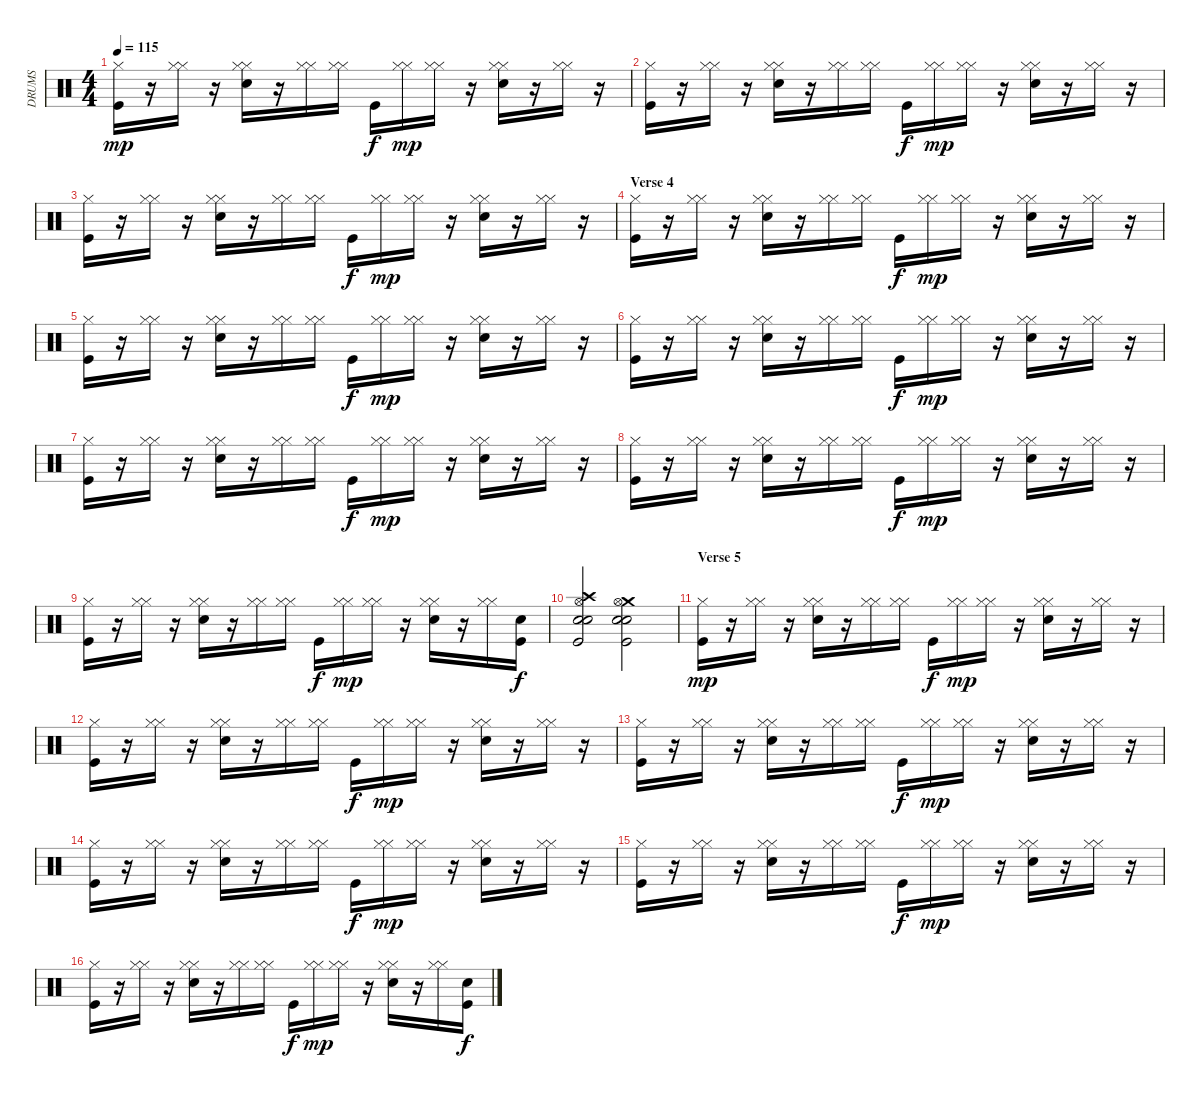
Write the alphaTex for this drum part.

\track ("DRUMS" "DRUMS") {instrument percussion}
\staff {score}
\articulation defaults
\ts (4 4)
\tempo 115
\clef neutral
\ks c
("Kick (hit)" "Hi-Hat (closed)").16{dy mp} r.16 ("Hi-Hat (closed)" "Hi-Hat (closed)").16 r.16 ("Hi-Hat (closed)" "Snare (hit) 2" "Hi-Hat (closed)").16 r.16 ("Hi-Hat (closed)" "Hi-Hat (closed)").16 ("Hi-Hat (closed)" "Hi-Hat (closed)").16 "Kick (hit)".16{dy f} ("Hi-Hat (closed)" "Hi-Hat (closed)").16{dy mp} ("Hi-Hat (closed)" "Hi-Hat (closed)").16 r.16 ("Hi-Hat (closed)" "Snare (hit) 2" "Hi-Hat (closed)").16 r.16 ("Hi-Hat (closed)" "Hi-Hat (closed)").16 r.16 |
("Kick (hit)" "Hi-Hat (closed)").16 r.16 ("Hi-Hat (closed)" "Hi-Hat (closed)").16 r.16 ("Hi-Hat (closed)" "Snare (hit) 2" "Hi-Hat (closed)").16 r.16 ("Hi-Hat (closed)" "Hi-Hat (closed)").16 ("Hi-Hat (closed)" "Hi-Hat (closed)").16 "Kick (hit)".16{dy f} ("Hi-Hat (closed)" "Hi-Hat (closed)").16{dy mp} ("Hi-Hat (closed)" "Hi-Hat (closed)").16 r.16 ("Hi-Hat (closed)" "Snare (hit) 2" "Hi-Hat (closed)").16 r.16 ("Hi-Hat (closed)" "Hi-Hat (closed)").16 r.16 |
("Kick (hit)" "Hi-Hat (closed)").16 r.16 ("Hi-Hat (closed)" "Hi-Hat (closed)").16 r.16 ("Hi-Hat (closed)" "Snare (hit) 2" "Hi-Hat (closed)").16 r.16 ("Hi-Hat (closed)" "Hi-Hat (closed)").16 ("Hi-Hat (closed)" "Hi-Hat (closed)").16 "Kick (hit)".16{dy f} ("Hi-Hat (closed)" "Hi-Hat (closed)").16{dy mp} ("Hi-Hat (closed)" "Hi-Hat (closed)").16 r.16 ("Hi-Hat (closed)" "Snare (hit) 2" "Hi-Hat (closed)").16 r.16 ("Hi-Hat (closed)" "Hi-Hat (closed)").16 r.16 |
\section ("" "Verse 4")
("Kick (hit)" "Hi-Hat (closed)").16 r.16 ("Hi-Hat (closed)" "Hi-Hat (closed)").16 r.16 ("Hi-Hat (closed)" "Snare (hit) 2" "Hi-Hat (closed)").16 r.16 ("Hi-Hat (closed)" "Hi-Hat (closed)").16 ("Hi-Hat (closed)" "Hi-Hat (closed)").16 "Kick (hit)".16{dy f} ("Hi-Hat (closed)" "Hi-Hat (closed)").16{dy mp} ("Hi-Hat (closed)" "Hi-Hat (closed)").16 r.16 ("Hi-Hat (closed)" "Snare (hit) 2" "Hi-Hat (closed)").16 r.16 ("Hi-Hat (closed)" "Hi-Hat (closed)").16 r.16 |
("Kick (hit)" "Hi-Hat (closed)").16 r.16 ("Hi-Hat (closed)" "Hi-Hat (closed)").16 r.16 ("Hi-Hat (closed)" "Snare (hit) 2" "Hi-Hat (closed)").16 r.16 ("Hi-Hat (closed)" "Hi-Hat (closed)").16 ("Hi-Hat (closed)" "Hi-Hat (closed)").16 "Kick (hit)".16{dy f} ("Hi-Hat (closed)" "Hi-Hat (closed)").16{dy mp} ("Hi-Hat (closed)" "Hi-Hat (closed)").16 r.16 ("Hi-Hat (closed)" "Snare (hit) 2" "Hi-Hat (closed)").16 r.16 ("Hi-Hat (closed)" "Hi-Hat (closed)").16 r.16 |
("Kick (hit)" "Hi-Hat (closed)").16 r.16 ("Hi-Hat (closed)" "Hi-Hat (closed)").16 r.16 ("Hi-Hat (closed)" "Snare (hit) 2" "Hi-Hat (closed)").16 r.16 ("Hi-Hat (closed)" "Hi-Hat (closed)").16 ("Hi-Hat (closed)" "Hi-Hat (closed)").16 "Kick (hit)".16{dy f} ("Hi-Hat (closed)" "Hi-Hat (closed)").16{dy mp} ("Hi-Hat (closed)" "Hi-Hat (closed)").16 r.16 ("Hi-Hat (closed)" "Snare (hit) 2" "Hi-Hat (closed)").16 r.16 ("Hi-Hat (closed)" "Hi-Hat (closed)").16 r.16 |
("Kick (hit)" "Hi-Hat (closed)").16 r.16 ("Hi-Hat (closed)" "Hi-Hat (closed)").16 r.16 ("Hi-Hat (closed)" "Snare (hit) 2" "Hi-Hat (closed)").16 r.16 ("Hi-Hat (closed)" "Hi-Hat (closed)").16 ("Hi-Hat (closed)" "Hi-Hat (closed)").16 "Kick (hit)".16{dy f} ("Hi-Hat (closed)" "Hi-Hat (closed)").16{dy mp} ("Hi-Hat (closed)" "Hi-Hat (closed)").16 r.16 ("Hi-Hat (closed)" "Snare (hit) 2" "Hi-Hat (closed)").16 r.16 ("Hi-Hat (closed)" "Hi-Hat (closed)").16 r.16 |
("Kick (hit)" "Hi-Hat (closed)").16 r.16 ("Hi-Hat (closed)" "Hi-Hat (closed)").16 r.16 ("Hi-Hat (closed)" "Snare (hit) 2" "Hi-Hat (closed)").16 r.16 ("Hi-Hat (closed)" "Hi-Hat (closed)").16 ("Hi-Hat (closed)" "Hi-Hat (closed)").16 "Kick (hit)".16{dy f} ("Hi-Hat (closed)" "Hi-Hat (closed)").16{dy mp} ("Hi-Hat (closed)" "Hi-Hat (closed)").16 r.16 ("Hi-Hat (closed)" "Snare (hit) 2" "Hi-Hat (closed)").16 r.16 ("Hi-Hat (closed)" "Hi-Hat (closed)").16 r.16 |
("Kick (hit)" "Hi-Hat (closed)").16 r.16 ("Hi-Hat (closed)" "Hi-Hat (closed)").16 r.16 ("Hi-Hat (closed)" "Snare (hit) 2" "Hi-Hat (closed)").16 r.16 ("Hi-Hat (closed)" "Hi-Hat (closed)").16 ("Hi-Hat (closed)" "Hi-Hat (closed)").16 "Kick (hit)".16{dy f} ("Hi-Hat (closed)" "Hi-Hat (closed)").16{dy mp} ("Hi-Hat (closed)" "Hi-Hat (closed)").16 r.16 ("Hi-Hat (closed)" "Snare (hit) 2" "Hi-Hat (closed)").16 r.16 ("Hi-Hat (closed)" "Hi-Hat (closed)").16 ("Snare (hit) 2" "Kick (hit)").16{dy f} |
("Crash high (hit)" "Hi-Hat (open)" "Snare (hit) 2" "Kick (hit)" "Electric Snare (hit)").2 ("Crash medium (hit)" "Hi-Hat (open)" "Snare (hit) 2" "Kick (hit)" "Electric Snare (hit)").2 |
\section ("" "Verse 5")
("Kick (hit)" "Hi-Hat (closed)").16{dy mp} r.16 ("Hi-Hat (closed)" "Hi-Hat (closed)").16 r.16 ("Hi-Hat (closed)" "Snare (hit) 2" "Hi-Hat (closed)").16 r.16 ("Hi-Hat (closed)" "Hi-Hat (closed)").16 ("Hi-Hat (closed)" "Hi-Hat (closed)").16 "Kick (hit)".16{dy f} ("Hi-Hat (closed)" "Hi-Hat (closed)").16{dy mp} ("Hi-Hat (closed)" "Hi-Hat (closed)").16 r.16 ("Hi-Hat (closed)" "Snare (hit) 2" "Hi-Hat (closed)").16 r.16 ("Hi-Hat (closed)" "Hi-Hat (closed)").16 r.16 |
("Kick (hit)" "Hi-Hat (closed)").16 r.16 ("Hi-Hat (closed)" "Hi-Hat (closed)").16 r.16 ("Hi-Hat (closed)" "Snare (hit) 2" "Hi-Hat (closed)").16 r.16 ("Hi-Hat (closed)" "Hi-Hat (closed)").16 ("Hi-Hat (closed)" "Hi-Hat (closed)").16 "Kick (hit)".16{dy f} ("Hi-Hat (closed)" "Hi-Hat (closed)").16{dy mp} ("Hi-Hat (closed)" "Hi-Hat (closed)").16 r.16 ("Hi-Hat (closed)" "Snare (hit) 2" "Hi-Hat (closed)").16 r.16 ("Hi-Hat (closed)" "Hi-Hat (closed)").16 r.16 |
("Kick (hit)" "Hi-Hat (closed)").16 r.16 ("Hi-Hat (closed)" "Hi-Hat (closed)").16 r.16 ("Hi-Hat (closed)" "Snare (hit) 2" "Hi-Hat (closed)").16 r.16 ("Hi-Hat (closed)" "Hi-Hat (closed)").16 ("Hi-Hat (closed)" "Hi-Hat (closed)").16 "Kick (hit)".16{dy f} ("Hi-Hat (closed)" "Hi-Hat (closed)").16{dy mp} ("Hi-Hat (closed)" "Hi-Hat (closed)").16 r.16 ("Hi-Hat (closed)" "Snare (hit) 2" "Hi-Hat (closed)").16 r.16 ("Hi-Hat (closed)" "Hi-Hat (closed)").16 r.16 |
("Kick (hit)" "Hi-Hat (closed)").16 r.16 ("Hi-Hat (closed)" "Hi-Hat (closed)").16 r.16 ("Hi-Hat (closed)" "Snare (hit) 2" "Hi-Hat (closed)").16 r.16 ("Hi-Hat (closed)" "Hi-Hat (closed)").16 ("Hi-Hat (closed)" "Hi-Hat (closed)").16 "Kick (hit)".16{dy f} ("Hi-Hat (closed)" "Hi-Hat (closed)").16{dy mp} ("Hi-Hat (closed)" "Hi-Hat (closed)").16 r.16 ("Hi-Hat (closed)" "Snare (hit) 2" "Hi-Hat (closed)").16 r.16 ("Hi-Hat (closed)" "Hi-Hat (closed)").16 r.16 |
("Kick (hit)" "Hi-Hat (closed)").16 r.16 ("Hi-Hat (closed)" "Hi-Hat (closed)").16 r.16 ("Hi-Hat (closed)" "Snare (hit) 2" "Hi-Hat (closed)").16 r.16 ("Hi-Hat (closed)" "Hi-Hat (closed)").16 ("Hi-Hat (closed)" "Hi-Hat (closed)").16 "Kick (hit)".16{dy f} ("Hi-Hat (closed)" "Hi-Hat (closed)").16{dy mp} ("Hi-Hat (closed)" "Hi-Hat (closed)").16 r.16 ("Hi-Hat (closed)" "Snare (hit) 2" "Hi-Hat (closed)").16 r.16 ("Hi-Hat (closed)" "Hi-Hat (closed)").16 r.16 |
("Kick (hit)" "Hi-Hat (closed)").16 r.16 ("Hi-Hat (closed)" "Hi-Hat (closed)").16 r.16 ("Hi-Hat (closed)" "Snare (hit) 2" "Hi-Hat (closed)").16 r.16 ("Hi-Hat (closed)" "Hi-Hat (closed)").16 ("Hi-Hat (closed)" "Hi-Hat (closed)").16 "Kick (hit)".16{dy f} ("Hi-Hat (closed)" "Hi-Hat (closed)").16{dy mp} ("Hi-Hat (closed)" "Hi-Hat (closed)").16 r.16 ("Hi-Hat (closed)" "Snare (hit) 2" "Hi-Hat (closed)").16 r.16 ("Hi-Hat (closed)" "Hi-Hat (closed)").16 ("Snare (hit) 2" "Kick (hit)").16{dy f}
